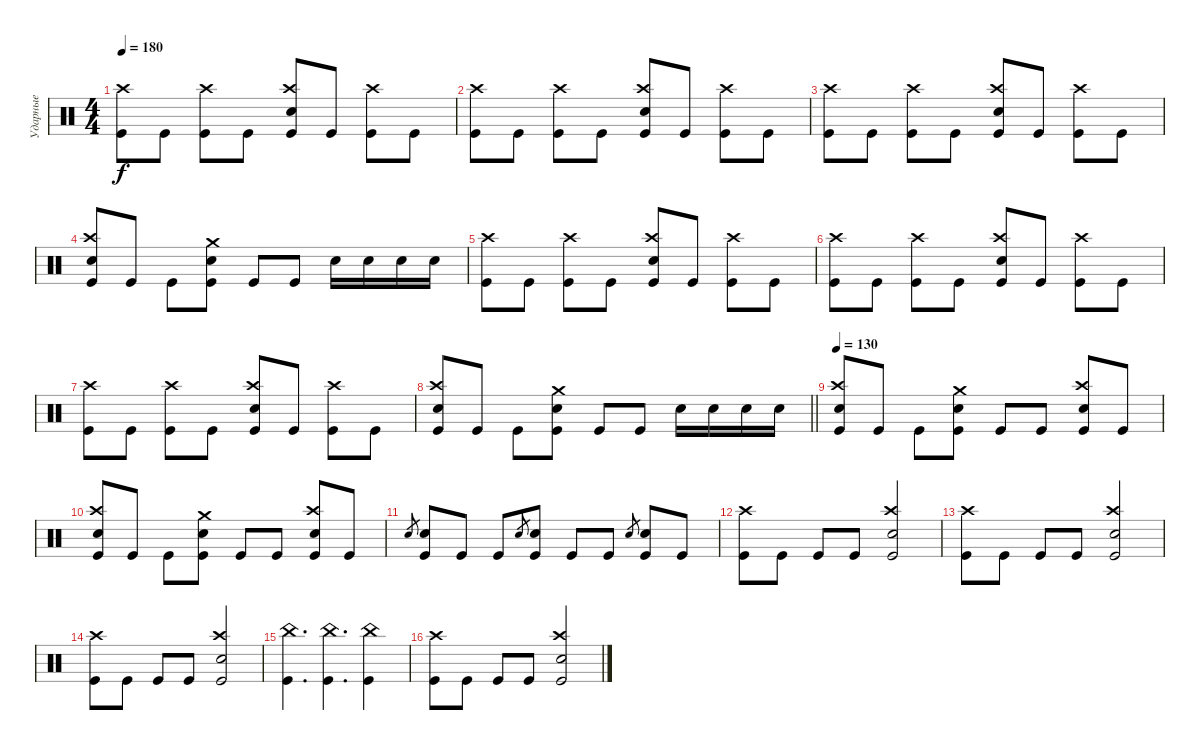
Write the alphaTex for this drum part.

\track ("Ударные" "Ударные") {instrument percussion}
\staff {score}
\articulation defaults
\ts (4 4)
\tempo 180
\clef neutral
\ks c
("Kick (hit)" "Crash high (hit)").8{dy f} "Kick (hit)".8 ("Kick (hit)" "Crash high (hit)").8 "Kick (hit)".8 ("Kick (hit)" "Crash high (hit)" "Snare (hit) 2").8 "Kick (hit)".8 ("Kick (hit)" "Crash high (hit)").8 "Kick (hit)".8 |
("Kick (hit)" "Crash high (hit)").8 "Kick (hit)".8 ("Kick (hit)" "Crash high (hit)").8 "Kick (hit)".8 ("Kick (hit)" "Crash high (hit)" "Snare (hit) 2").8 "Kick (hit)".8 ("Kick (hit)" "Crash high (hit)").8 "Kick (hit)".8 |
("Kick (hit)" "Crash high (hit)").8 "Kick (hit)".8 ("Kick (hit)" "Crash high (hit)").8 "Kick (hit)".8 ("Kick (hit)" "Crash high (hit)" "Snare (hit) 2").8 "Kick (hit)".8 ("Kick (hit)" "Crash high (hit)").8 "Kick (hit)".8 |
("Kick (hit)" "Crash high (hit)" "Snare (hit) 2").8 "Kick (hit)".8 "Kick (hit)".8 ("Kick (hit)" "Snare (hit) 2" "Crash medium (hit)").8 "Kick (hit)".8 "Kick (hit)".8 "Snare (hit) 2".16 "Snare (hit) 2".16 "Snare (hit) 2".16 "Snare (hit) 2".16 |
("Kick (hit)" "Crash high (hit)").8 "Kick (hit)".8 ("Kick (hit)" "Crash high (hit)").8 "Kick (hit)".8 ("Kick (hit)" "Crash high (hit)" "Snare (hit) 2").8 "Kick (hit)".8 ("Kick (hit)" "Crash high (hit)").8 "Kick (hit)".8 |
("Kick (hit)" "Crash high (hit)").8 "Kick (hit)".8 ("Kick (hit)" "Crash high (hit)").8 "Kick (hit)".8 ("Kick (hit)" "Crash high (hit)" "Snare (hit) 2").8 "Kick (hit)".8 ("Kick (hit)" "Crash high (hit)").8 "Kick (hit)".8 |
("Kick (hit)" "Crash high (hit)").8 "Kick (hit)".8 ("Kick (hit)" "Crash high (hit)").8 "Kick (hit)".8 ("Kick (hit)" "Crash high (hit)" "Snare (hit) 2").8 "Kick (hit)".8 ("Kick (hit)" "Crash high (hit)").8 "Kick (hit)".8 |
\barLineRight lightlight
("Kick (hit)" "Crash high (hit)" "Snare (hit) 2").8 "Kick (hit)".8 "Kick (hit)".8 ("Kick (hit)" "Snare (hit) 2" "Crash medium (hit)").8 "Kick (hit)".8 "Kick (hit)".8 "Snare (hit) 2".16 "Snare (hit) 2".16 "Snare (hit) 2".16 "Snare (hit) 2".16 |
\tempo 130
("Kick (hit)" "Crash high (hit)" "Snare (hit) 2").8 "Kick (hit)".8 "Kick (hit)".8 ("Kick (hit)" "Snare (hit) 2" "Crash medium (hit)").8 "Kick (hit)".8 "Kick (hit)".8 ("Kick (hit)" "Snare (hit) 2" "Crash high (hit)").8 "Kick (hit)".8 |
("Kick (hit)" "Crash high (hit)" "Snare (hit) 2").8 "Kick (hit)".8 "Kick (hit)".8 ("Kick (hit)" "Snare (hit) 2" "Crash medium (hit)").8 "Kick (hit)".8 "Kick (hit)".8 ("Kick (hit)" "Snare (hit) 2" "Crash high (hit)").8 "Kick (hit)".8 |
"Snare (hit) 2".8{gr} ("Snare (hit) 2" "Kick (hit)").8 "Kick (hit)".8 "Kick (hit)".8 "Snare (hit) 2".8{gr} ("Kick (hit)" "Snare (hit) 2").8 "Kick (hit)".8 "Kick (hit)".8 "Snare (hit) 2".8{gr} ("Kick (hit)" "Snare (hit) 2").8 "Kick (hit)".8 |
("Crash high (hit)" "Kick (hit)").8 "Kick (hit)".8 "Kick (hit)".8 "Kick (hit)".8 ("Kick (hit)" "Snare (hit) 2" "Crash high (hit)").2 |
("Crash high (hit)" "Kick (hit)").8 "Kick (hit)".8 "Kick (hit)".8 "Kick (hit)".8 ("Kick (hit)" "Snare (hit) 2" "Crash high (hit)").2 |
("Crash high (hit)" "Kick (hit)").8 "Kick (hit)".8 "Kick (hit)".8 "Kick (hit)".8 ("Kick (hit)" "Snare (hit) 2" "Crash high (hit)").2 |
("Kick (hit)" "China (hit)").4{d} ("Kick (hit)" "China (hit)").4{d} ("Kick (hit)" "China (hit)").4 |
("Crash high (hit)" "Kick (hit)").8 "Kick (hit)".8 "Kick (hit)".8 "Kick (hit)".8 ("Kick (hit)" "Snare (hit) 2" "Crash high (hit)").2
